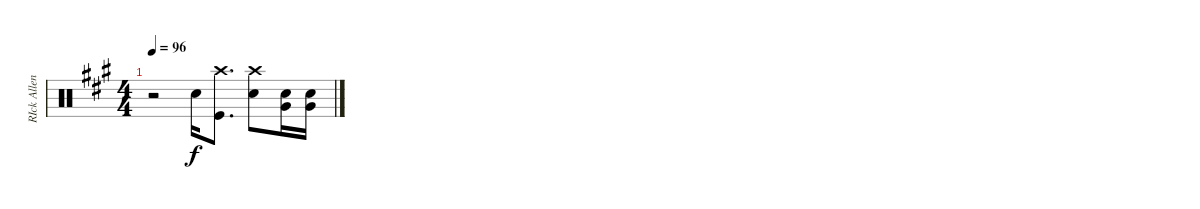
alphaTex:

\track ("RIck Allen" "RIck Allen") {instrument percussion}
\staff {score}
\articulation defaults
\ts (4 4)
\tempo 96
\clef neutral
\ks a
r.2{dy f} "Snare (hit) 2".16 ("Crash high (hit)" "Kick (hit)").8{d} ("Crash high (hit)" "Snare (hit) 2").8 ("Snare (hit) 2" "Very Low Tom (hit)").16 ("Snare (hit) 2" "Very Low Tom (hit)").16
